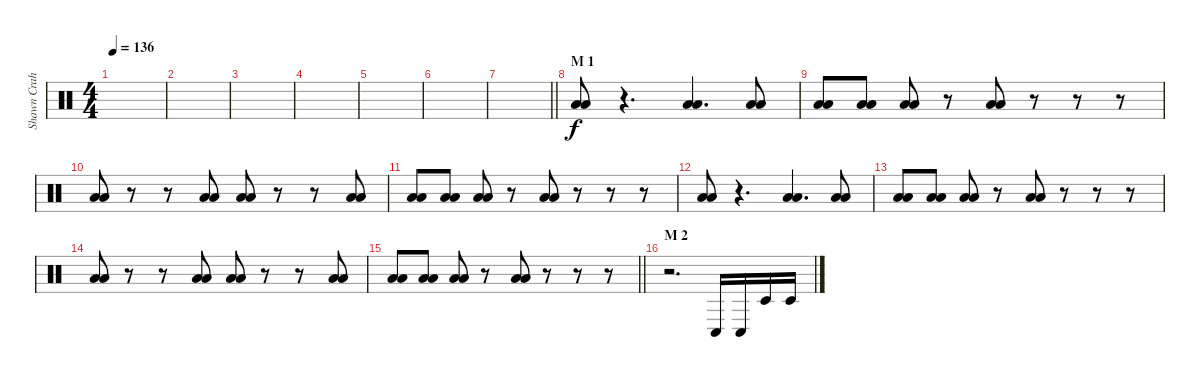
\track ("Shawn Crahan" "Shawn Crah") {instrument percussion}
\staff {score}
\articulation defaults
\ts (4 4)
\tempo 136
\clef neutral
\ks c
|
|
|
|
|
|
\barLineRight lightlight
|
\section ("" "M 1")
("Low Floor Tom (hit)" "Low Floor Tom (hit)").8 r.4{d} ("Low Floor Tom (hit)" "Low Floor Tom (hit)").4{d} ("Low Floor Tom (hit)" "Low Floor Tom (hit)").8 |
("Low Floor Tom (hit)" "Low Floor Tom (hit)").8 ("Low Floor Tom (hit)" "Low Floor Tom (hit)").8 ("Low Floor Tom (hit)" "Low Floor Tom (hit)").8 r.8 ("Low Floor Tom (hit)" "Low Floor Tom (hit)").8 r.8 r.8 r.8 |
("Low Floor Tom (hit)" "Low Floor Tom (hit)").8 r.8 r.8 ("Low Floor Tom (hit)" "Low Floor Tom (hit)").8 ("Low Floor Tom (hit)" "Low Floor Tom (hit)").8 r.8 r.8 ("Low Floor Tom (hit)" "Low Floor Tom (hit)").8 |
("Low Floor Tom (hit)" "Low Floor Tom (hit)").8 ("Low Floor Tom (hit)" "Low Floor Tom (hit)").8 ("Low Floor Tom (hit)" "Low Floor Tom (hit)").8 r.8 ("Low Floor Tom (hit)" "Low Floor Tom (hit)").8 r.8 r.8 r.8 |
("Low Floor Tom (hit)" "Low Floor Tom (hit)").8 r.4{d} ("Low Floor Tom (hit)" "Low Floor Tom (hit)").4{d} ("Low Floor Tom (hit)" "Low Floor Tom (hit)").8 |
("Low Floor Tom (hit)" "Low Floor Tom (hit)").8 ("Low Floor Tom (hit)" "Low Floor Tom (hit)").8 ("Low Floor Tom (hit)" "Low Floor Tom (hit)").8 r.8 ("Low Floor Tom (hit)" "Low Floor Tom (hit)").8 r.8 r.8 r.8 |
("Low Floor Tom (hit)" "Low Floor Tom (hit)").8 r.8 r.8 ("Low Floor Tom (hit)" "Low Floor Tom (hit)").8 ("Low Floor Tom (hit)" "Low Floor Tom (hit)").8 r.8 r.8 ("Low Floor Tom (hit)" "Low Floor Tom (hit)").8 |
\barLineRight lightlight
("Low Floor Tom (hit)" "Low Floor Tom (hit)").8 ("Low Floor Tom (hit)" "Low Floor Tom (hit)").8 ("Low Floor Tom (hit)" "Low Floor Tom (hit)").8 r.8 ("Low Floor Tom (hit)" "Low Floor Tom (hit)").8 r.8 r.8 r.8 |
\section ("" "M 2")
r.2{d} "Conga low (hit)".16 "Conga low (hit)".16 "Timbale low (hit)".16 "Timbale low (hit)".16
